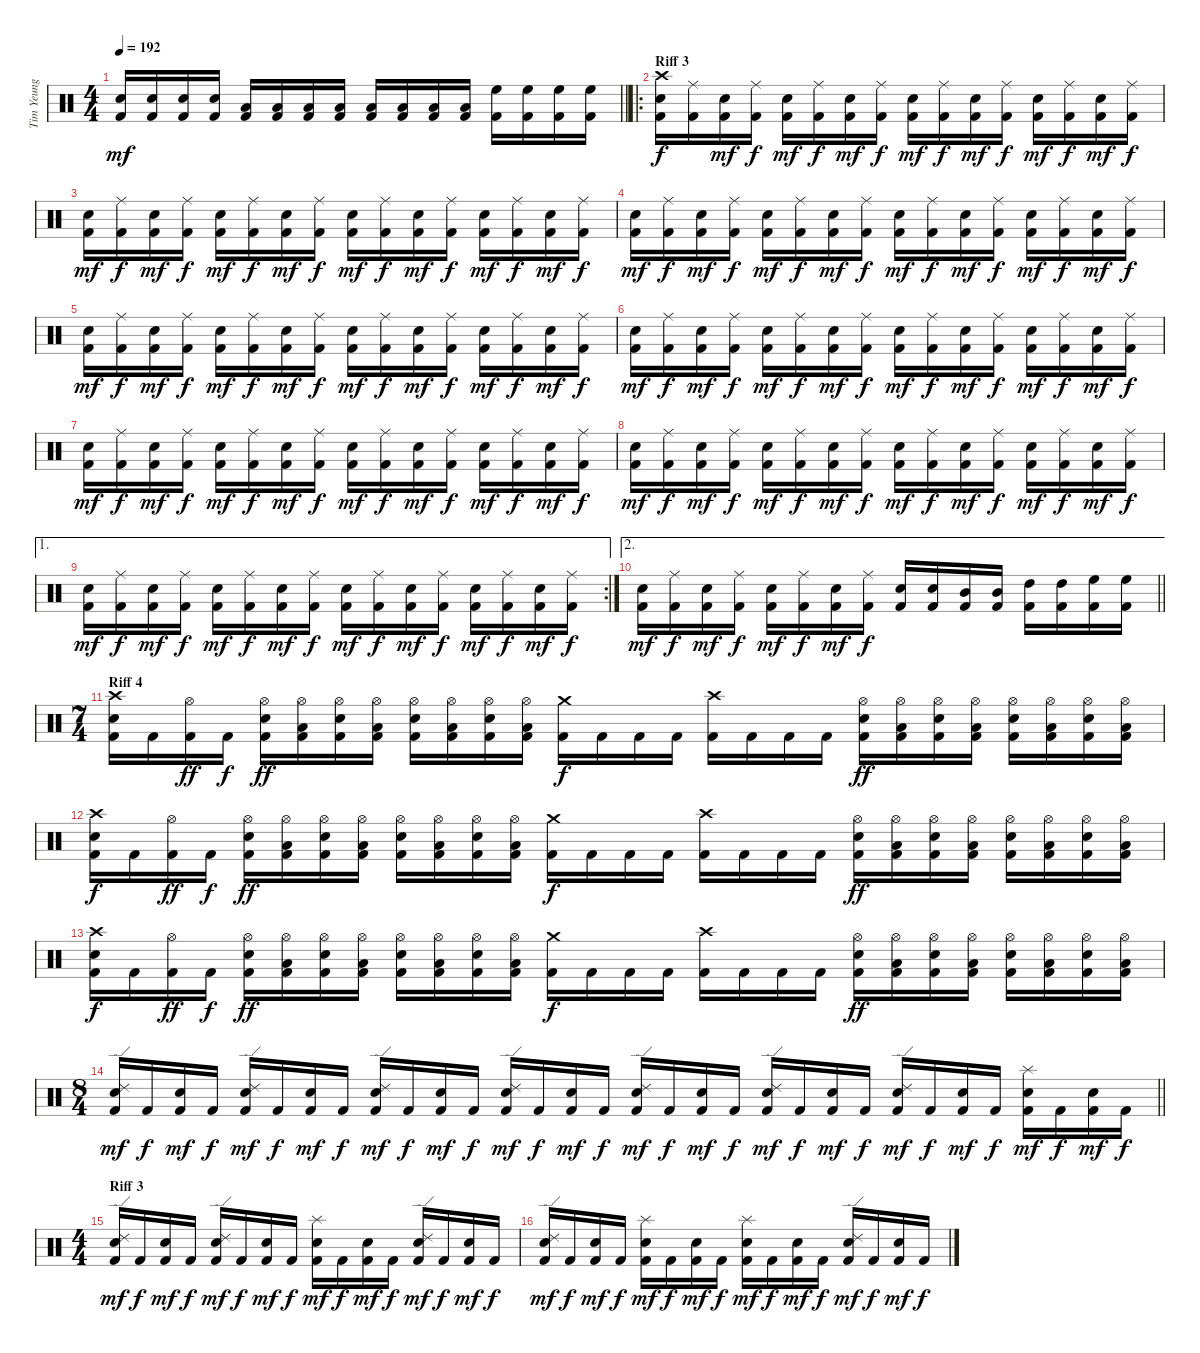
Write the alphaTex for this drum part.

\track ("Tim Yeung" "Tim Yeung") {instrument percussion}
\staff {score}
\articulation defaults
\ts (4 4)
\tempo 192
\clef neutral
\barLineRight lightlight
\ks c
("Snare (hit) 2" "Kick (hit) 2").16{dy mf} ("Snare (hit) 2" "Kick (hit) 2").16 ("Snare (hit) 2" "Kick (hit) 2").16 ("Snare (hit) 2" "Kick (hit) 2").16 ("Low Floor Tom (hit)" "Kick (hit) 2").16 ("Low Floor Tom (hit)" "Kick (hit) 2").16 ("Low Floor Tom (hit)" "Kick (hit) 2").16 ("Low Floor Tom (hit)" "Kick (hit) 2").16 ("Low Tom (hit)" "Kick (hit) 2").16 ("Low Tom (hit)" "Kick (hit) 2").16 ("Low Tom (hit)" "Kick (hit) 2").16 ("Low Tom (hit)" "Kick (hit) 2").16 ("High Floor Tom (hit)" "Kick (hit) 2").16 ("High Floor Tom (hit)" "Kick (hit) 2").16 ("High Floor Tom (hit)" "Kick (hit) 2").16 ("High Floor Tom (hit)" "Kick (hit) 2").16 |
\ro
\section ("" "Riff 3")
("Crash high (hit)" "Snare (hit) 2" "Kick (hit) 2").16{dy f} ("Ride (middle)" "Kick (hit) 2").16 ("Snare (hit) 2" "Kick (hit) 2").16{dy mf} ("Ride (middle)" "Kick (hit) 2").16{dy f} ("Snare (hit) 2" "Kick (hit) 2").16{dy mf} ("Ride (middle)" "Kick (hit) 2").16{dy f} ("Snare (hit) 2" "Kick (hit) 2").16{dy mf} ("Ride (middle)" "Kick (hit) 2").16{dy f} ("Snare (hit) 2" "Kick (hit) 2").16{dy mf} ("Ride (middle)" "Kick (hit) 2").16{dy f} ("Snare (hit) 2" "Kick (hit) 2").16{dy mf} ("Ride (middle)" "Kick (hit) 2").16{dy f} ("Snare (hit) 2" "Kick (hit) 2").16{dy mf} ("Ride (middle)" "Kick (hit) 2").16{dy f} ("Snare (hit) 2" "Kick (hit) 2").16{dy mf} ("Ride (middle)" "Kick (hit) 2").16{dy f} |
("Snare (hit) 2" "Kick (hit) 2").16{dy mf} ("Ride (middle)" "Kick (hit) 2").16{dy f} ("Snare (hit) 2" "Kick (hit) 2").16{dy mf} ("Ride (middle)" "Kick (hit) 2").16{dy f} ("Snare (hit) 2" "Kick (hit) 2").16{dy mf} ("Ride (middle)" "Kick (hit) 2").16{dy f} ("Snare (hit) 2" "Kick (hit) 2").16{dy mf} ("Ride (middle)" "Kick (hit) 2").16{dy f} ("Snare (hit) 2" "Kick (hit) 2").16{dy mf} ("Ride (middle)" "Kick (hit) 2").16{dy f} ("Snare (hit) 2" "Kick (hit) 2").16{dy mf} ("Ride (middle)" "Kick (hit) 2").16{dy f} ("Snare (hit) 2" "Kick (hit) 2").16{dy mf} ("Ride (middle)" "Kick (hit) 2").16{dy f} ("Snare (hit) 2" "Kick (hit) 2").16{dy mf} ("Ride (middle)" "Kick (hit) 2").16{dy f} |
("Snare (hit) 2" "Kick (hit) 2").16{dy mf} ("Ride (middle)" "Kick (hit) 2").16{dy f} ("Snare (hit) 2" "Kick (hit) 2").16{dy mf} ("Ride (middle)" "Kick (hit) 2").16{dy f} ("Snare (hit) 2" "Kick (hit) 2").16{dy mf} ("Ride (middle)" "Kick (hit) 2").16{dy f} ("Snare (hit) 2" "Kick (hit) 2").16{dy mf} ("Ride (middle)" "Kick (hit) 2").16{dy f} ("Snare (hit) 2" "Kick (hit) 2").16{dy mf} ("Ride (middle)" "Kick (hit) 2").16{dy f} ("Snare (hit) 2" "Kick (hit) 2").16{dy mf} ("Ride (middle)" "Kick (hit) 2").16{dy f} ("Snare (hit) 2" "Kick (hit) 2").16{dy mf} ("Ride (middle)" "Kick (hit) 2").16{dy f} ("Snare (hit) 2" "Kick (hit) 2").16{dy mf} ("Ride (middle)" "Kick (hit) 2").16{dy f} |
("Snare (hit) 2" "Kick (hit) 2").16{dy mf} ("Ride (middle)" "Kick (hit) 2").16{dy f} ("Snare (hit) 2" "Kick (hit) 2").16{dy mf} ("Ride (middle)" "Kick (hit) 2").16{dy f} ("Snare (hit) 2" "Kick (hit) 2").16{dy mf} ("Ride (middle)" "Kick (hit) 2").16{dy f} ("Snare (hit) 2" "Kick (hit) 2").16{dy mf} ("Ride (middle)" "Kick (hit) 2").16{dy f} ("Snare (hit) 2" "Kick (hit) 2").16{dy mf} ("Ride (middle)" "Kick (hit) 2").16{dy f} ("Snare (hit) 2" "Kick (hit) 2").16{dy mf} ("Ride (middle)" "Kick (hit) 2").16{dy f} ("Snare (hit) 2" "Kick (hit) 2").16{dy mf} ("Ride (middle)" "Kick (hit) 2").16{dy f} ("Snare (hit) 2" "Kick (hit) 2").16{dy mf} ("Ride (middle)" "Kick (hit) 2").16{dy f} |
("Snare (hit) 2" "Kick (hit) 2").16{dy mf} ("Ride (middle)" "Kick (hit) 2").16{dy f} ("Snare (hit) 2" "Kick (hit) 2").16{dy mf} ("Ride (middle)" "Kick (hit) 2").16{dy f} ("Snare (hit) 2" "Kick (hit) 2").16{dy mf} ("Ride (middle)" "Kick (hit) 2").16{dy f} ("Snare (hit) 2" "Kick (hit) 2").16{dy mf} ("Ride (middle)" "Kick (hit) 2").16{dy f} ("Snare (hit) 2" "Kick (hit) 2").16{dy mf} ("Ride (middle)" "Kick (hit) 2").16{dy f} ("Snare (hit) 2" "Kick (hit) 2").16{dy mf} ("Ride (middle)" "Kick (hit) 2").16{dy f} ("Snare (hit) 2" "Kick (hit) 2").16{dy mf} ("Ride (middle)" "Kick (hit) 2").16{dy f} ("Snare (hit) 2" "Kick (hit) 2").16{dy mf} ("Ride (middle)" "Kick (hit) 2").16{dy f} |
("Snare (hit) 2" "Kick (hit) 2").16{dy mf} ("Ride (middle)" "Kick (hit) 2").16{dy f} ("Snare (hit) 2" "Kick (hit) 2").16{dy mf} ("Ride (middle)" "Kick (hit) 2").16{dy f} ("Snare (hit) 2" "Kick (hit) 2").16{dy mf} ("Ride (middle)" "Kick (hit) 2").16{dy f} ("Snare (hit) 2" "Kick (hit) 2").16{dy mf} ("Ride (middle)" "Kick (hit) 2").16{dy f} ("Snare (hit) 2" "Kick (hit) 2").16{dy mf} ("Ride (middle)" "Kick (hit) 2").16{dy f} ("Snare (hit) 2" "Kick (hit) 2").16{dy mf} ("Ride (middle)" "Kick (hit) 2").16{dy f} ("Snare (hit) 2" "Kick (hit) 2").16{dy mf} ("Ride (middle)" "Kick (hit) 2").16{dy f} ("Snare (hit) 2" "Kick (hit) 2").16{dy mf} ("Ride (middle)" "Kick (hit) 2").16{dy f} |
("Snare (hit) 2" "Kick (hit) 2").16{dy mf} ("Ride (middle)" "Kick (hit) 2").16{dy f} ("Snare (hit) 2" "Kick (hit) 2").16{dy mf} ("Ride (middle)" "Kick (hit) 2").16{dy f} ("Snare (hit) 2" "Kick (hit) 2").16{dy mf} ("Ride (middle)" "Kick (hit) 2").16{dy f} ("Snare (hit) 2" "Kick (hit) 2").16{dy mf} ("Ride (middle)" "Kick (hit) 2").16{dy f} ("Snare (hit) 2" "Kick (hit) 2").16{dy mf} ("Ride (middle)" "Kick (hit) 2").16{dy f} ("Snare (hit) 2" "Kick (hit) 2").16{dy mf} ("Ride (middle)" "Kick (hit) 2").16{dy f} ("Snare (hit) 2" "Kick (hit) 2").16{dy mf} ("Ride (middle)" "Kick (hit) 2").16{dy f} ("Snare (hit) 2" "Kick (hit) 2").16{dy mf} ("Ride (middle)" "Kick (hit) 2").16{dy f} |
\ae 1
\rc 2
("Snare (hit) 2" "Kick (hit) 2").16{dy mf} ("Ride (middle)" "Kick (hit) 2").16{dy f} ("Snare (hit) 2" "Kick (hit) 2").16{dy mf} ("Ride (middle)" "Kick (hit) 2").16{dy f} ("Snare (hit) 2" "Kick (hit) 2").16{dy mf} ("Ride (middle)" "Kick (hit) 2").16{dy f} ("Snare (hit) 2" "Kick (hit) 2").16{dy mf} ("Ride (middle)" "Kick (hit) 2").16{dy f} ("Snare (hit) 2" "Kick (hit) 2").16{dy mf} ("Ride (middle)" "Kick (hit) 2").16{dy f} ("Snare (hit) 2" "Kick (hit) 2").16{dy mf} ("Ride (middle)" "Kick (hit) 2").16{dy f} ("Snare (hit) 2" "Kick (hit) 2").16{dy mf} ("Ride (middle)" "Kick (hit) 2").16{dy f} ("Snare (hit) 2" "Kick (hit) 2").16{dy mf} ("Ride (middle)" "Kick (hit) 2").16{dy f} |
\ae 2
\barLineRight lightlight
("Snare (hit) 2" "Kick (hit) 2").16{dy mf} ("Ride (middle)" "Kick (hit) 2").16{dy f} ("Snare (hit) 2" "Kick (hit) 2").16{dy mf} ("Ride (middle)" "Kick (hit) 2").16{dy f} ("Snare (hit) 2" "Kick (hit) 2").16{dy mf} ("Ride (middle)" "Kick (hit) 2").16{dy f} ("Snare (hit) 2" "Kick (hit) 2").16{dy mf} ("Ride (middle)" "Kick (hit) 2").16{dy f} ("Snare (hit) 2" "Kick (hit) 2").16 ("Snare (hit) 2" "Kick (hit) 2").16 ("Mid Tom (hit)" "Kick (hit) 2").16 ("Mid Tom (hit)" "Kick (hit) 2").16 ("High Tom (hit)" "Kick (hit) 2").16 ("High Tom (hit)" "Kick (hit) 2").16 ("High Floor Tom (hit)" "Kick (hit) 2").16 ("High Floor Tom (hit)" "Kick (hit) 2").16 |
\ts (7 4)
\section ("" "Riff 4")
("Crash high (hit)" "Snare (hit) 2" "Kick (hit) 2").16 "Kick (hit) 2".16 ("Hi-Hat (open)" "Kick (hit) 2").16{dy ff} "Kick (hit) 2".16{dy f} ("Snare (hit) 2" "Hi-Hat (open)" "Kick (hit) 2").16{dy ff} ("Low Tom (hit)" "Hi-Hat (open)" "Kick (hit) 2").16 ("Snare (hit) 2" "Hi-Hat (open)" "Kick (hit) 2").16 ("Low Tom (hit)" "Hi-Hat (open)" "Kick (hit) 2").16 ("Snare (hit) 2" "Hi-Hat (open)" "Kick (hit) 2").16 ("Low Tom (hit)" "Hi-Hat (open)" "Kick (hit) 2").16 ("Snare (hit) 2" "Hi-Hat (open)" "Kick (hit) 2").16 ("Low Tom (hit)" "Hi-Hat (open)" "Kick (hit) 2").16 ("Crash medium (hit)" "Kick (hit) 2").16{dy f} "Kick (hit) 2".16 "Kick (hit) 2".16 "Kick (hit) 2".16 ("Crash high (hit)" "Kick (hit) 2").16 "Kick (hit) 2".16 "Kick (hit) 2".16 "Kick (hit) 2".16 ("Snare (hit) 2" "Hi-Hat (open)" "Kick (hit) 2").16{dy ff} ("Low Tom (hit)" "Hi-Hat (open)" "Kick (hit) 2").16 ("Snare (hit) 2" "Hi-Hat (open)" "Kick (hit) 2").16 ("Low Tom (hit)" "Hi-Hat (open)" "Kick (hit) 2").16 ("Snare (hit) 2" "Hi-Hat (open)" "Kick (hit) 2").16 ("Low Tom (hit)" "Hi-Hat (open)" "Kick (hit) 2").16 ("Snare (hit) 2" "Hi-Hat (open)" "Kick (hit) 2").16 ("Low Tom (hit)" "Hi-Hat (open)" "Kick (hit) 2").16 |
("Crash high (hit)" "Snare (hit) 2" "Kick (hit) 2").16{dy f} "Kick (hit) 2".16 ("Hi-Hat (open)" "Kick (hit) 2").16{dy ff} "Kick (hit) 2".16{dy f} ("Snare (hit) 2" "Hi-Hat (open)" "Kick (hit) 2").16{dy ff} ("Low Tom (hit)" "Hi-Hat (open)" "Kick (hit) 2").16 ("Snare (hit) 2" "Hi-Hat (open)" "Kick (hit) 2").16 ("Low Tom (hit)" "Hi-Hat (open)" "Kick (hit) 2").16 ("Snare (hit) 2" "Hi-Hat (open)" "Kick (hit) 2").16 ("Low Tom (hit)" "Hi-Hat (open)" "Kick (hit) 2").16 ("Snare (hit) 2" "Hi-Hat (open)" "Kick (hit) 2").16 ("Low Tom (hit)" "Hi-Hat (open)" "Kick (hit) 2").16 ("Crash medium (hit)" "Kick (hit) 2").16{dy f} "Kick (hit) 2".16 "Kick (hit) 2".16 "Kick (hit) 2".16 ("Crash high (hit)" "Kick (hit) 2").16 "Kick (hit) 2".16 "Kick (hit) 2".16 "Kick (hit) 2".16 ("Snare (hit) 2" "Hi-Hat (open)" "Kick (hit) 2").16{dy ff} ("Low Tom (hit)" "Hi-Hat (open)" "Kick (hit) 2").16 ("Snare (hit) 2" "Hi-Hat (open)" "Kick (hit) 2").16 ("Low Tom (hit)" "Hi-Hat (open)" "Kick (hit) 2").16 ("Snare (hit) 2" "Hi-Hat (open)" "Kick (hit) 2").16 ("Low Tom (hit)" "Hi-Hat (open)" "Kick (hit) 2").16 ("Snare (hit) 2" "Hi-Hat (open)" "Kick (hit) 2").16 ("Low Tom (hit)" "Hi-Hat (open)" "Kick (hit) 2").16 |
("Crash high (hit)" "Snare (hit) 2" "Kick (hit) 2").16{dy f} "Kick (hit) 2".16 ("Hi-Hat (open)" "Kick (hit) 2").16{dy ff} "Kick (hit) 2".16{dy f} ("Snare (hit) 2" "Hi-Hat (open)" "Kick (hit) 2").16{dy ff} ("Low Tom (hit)" "Hi-Hat (open)" "Kick (hit) 2").16 ("Snare (hit) 2" "Hi-Hat (open)" "Kick (hit) 2").16 ("Low Tom (hit)" "Hi-Hat (open)" "Kick (hit) 2").16 ("Snare (hit) 2" "Hi-Hat (open)" "Kick (hit) 2").16 ("Low Tom (hit)" "Hi-Hat (open)" "Kick (hit) 2").16 ("Snare (hit) 2" "Hi-Hat (open)" "Kick (hit) 2").16 ("Low Tom (hit)" "Hi-Hat (open)" "Kick (hit) 2").16 ("Crash medium (hit)" "Kick (hit) 2").16{dy f} "Kick (hit) 2".16 "Kick (hit) 2".16 "Kick (hit) 2".16 ("Crash high (hit)" "Kick (hit) 2").16 "Kick (hit) 2".16 "Kick (hit) 2".16 "Kick (hit) 2".16 ("Snare (hit) 2" "Hi-Hat (open)" "Kick (hit) 2").16{dy ff} ("Low Tom (hit)" "Hi-Hat (open)" "Kick (hit) 2").16 ("Snare (hit) 2" "Hi-Hat (open)" "Kick (hit) 2").16 ("Low Tom (hit)" "Hi-Hat (open)" "Kick (hit) 2").16 ("Snare (hit) 2" "Hi-Hat (open)" "Kick (hit) 2").16 ("Low Tom (hit)" "Hi-Hat (open)" "Kick (hit) 2").16 ("Snare (hit) 2" "Hi-Hat (open)" "Kick (hit) 2").16 ("Low Tom (hit)" "Hi-Hat (open)" "Kick (hit) 2").16 |
\ts (8 4)
\barLineRight lightlight
("Snare (hit) 2" "Ride (edge) 2" "Kick (hit) 2").16{dy mf} "Kick (hit) 2".16{dy f} ("Snare (hit) 2" "Kick (hit) 2").16{dy mf} "Kick (hit) 2".16{dy f} ("Snare (hit) 2" "Ride (edge) 2" "Kick (hit) 2").16{dy mf} "Kick (hit) 2".16{dy f} ("Snare (hit) 2" "Kick (hit) 2").16{dy mf} "Kick (hit) 2".16{dy f} ("Snare (hit) 2" "Ride (edge) 2" "Kick (hit) 2").16{dy mf} "Kick (hit) 2".16{dy f} ("Snare (hit) 2" "Kick (hit) 2").16{dy mf} "Kick (hit) 2".16{dy f} ("Snare (hit) 2" "Ride (edge) 2" "Kick (hit) 2").16{dy mf} "Kick (hit) 2".16{dy f} ("Snare (hit) 2" "Kick (hit) 2").16{dy mf} "Kick (hit) 2".16{dy f} ("Snare (hit) 2" "Ride (edge) 2" "Kick (hit) 2").16{dy mf} "Kick (hit) 2".16{dy f} ("Snare (hit) 2" "Kick (hit) 2").16{dy mf} "Kick (hit) 2".16{dy f} ("Snare (hit) 2" "Ride (edge) 2" "Kick (hit) 2").16{dy mf} "Kick (hit) 2".16{dy f} ("Snare (hit) 2" "Kick (hit) 2").16{dy mf} "Kick (hit) 2".16{dy f} ("Snare (hit) 2" "Ride (edge) 2" "Kick (hit) 2").16{dy mf} "Kick (hit) 2".16{dy f} ("Snare (hit) 2" "Kick (hit) 2").16{dy mf} "Kick (hit) 2".16{dy f} ("Snare (hit) 2" "Splash (hit)" "Kick (hit) 2").16{dy mf} "Kick (hit) 2".16{dy f} ("Snare (hit) 2" "Kick (hit) 2").16{dy mf} "Kick (hit) 2".16{dy f} |
\ts (4 4)
\section ("" "Riff 3")
("Snare (hit) 2" "Ride (edge) 2" "Kick (hit) 2").16{dy mf} "Kick (hit) 2".16{dy f} ("Snare (hit) 2" "Kick (hit) 2").16{dy mf} "Kick (hit) 2".16{dy f} ("Snare (hit) 2" "Ride (edge) 2" "Kick (hit) 2").16{dy mf} "Kick (hit) 2".16{dy f} ("Snare (hit) 2" "Kick (hit) 2").16{dy mf} "Kick (hit) 2".16{dy f} ("Snare (hit) 2" "Splash (hit)" "Kick (hit) 2").16{dy mf} "Kick (hit) 2".16{dy f} ("Snare (hit) 2" "Kick (hit) 2").16{dy mf} "Kick (hit) 2".16{dy f} ("Snare (hit) 2" "Ride (edge) 2" "Kick (hit) 2").16{dy mf} "Kick (hit) 2".16{dy f} ("Snare (hit) 2" "Kick (hit) 2").16{dy mf} "Kick (hit) 2".16{dy f} |
("Snare (hit) 2" "Ride (edge) 2" "Kick (hit) 2").16{dy mf} "Kick (hit) 2".16{dy f} ("Snare (hit) 2" "Kick (hit) 2").16{dy mf} "Kick (hit) 2".16{dy f} ("Snare (hit) 2" "Splash (hit)" "Kick (hit) 2").16{dy mf} "Kick (hit) 2".16{dy f} ("Snare (hit) 2" "Kick (hit) 2").16{dy mf} "Kick (hit) 2".16{dy f} ("Snare (hit) 2" "Splash (hit)" "Kick (hit) 2").16{dy mf} "Kick (hit) 2".16{dy f} ("Snare (hit) 2" "Kick (hit) 2").16{dy mf} "Kick (hit) 2".16{dy f} ("Snare (hit) 2" "Ride (edge) 2" "Kick (hit) 2").16{dy mf} "Kick (hit) 2".16{dy f} ("Snare (hit) 2" "Kick (hit) 2").16{dy mf} "Kick (hit) 2".16{dy f}
